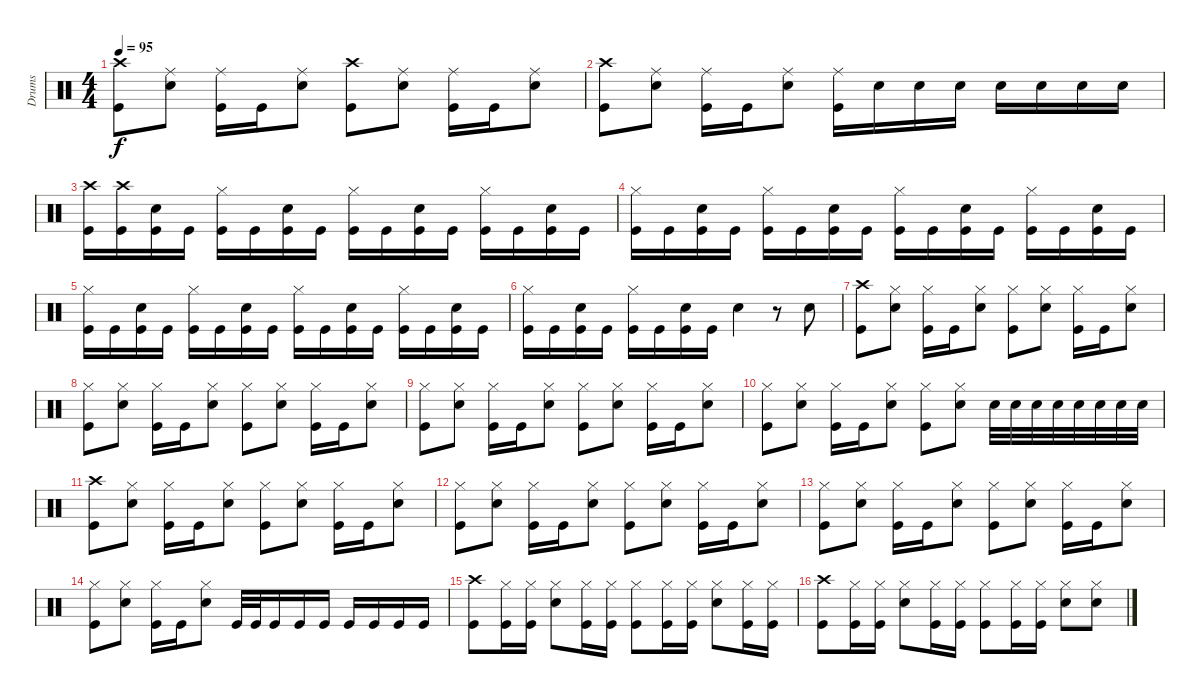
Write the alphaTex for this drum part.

\track ("Drums" "Drums") {instrument percussion}
\staff {score}
\articulation defaults
\ts (4 4)
\tempo 95
\clef neutral
\ks c
("Crash high (hit)" "Kick (hit)").8{dy f} ("Ride (middle)" "Snare (hit) 2").8 ("Ride (middle)" "Kick (hit)").16 "Kick (hit)".16 ("Ride (middle)" "Snare (hit) 2").8 ("Crash high (hit)" "Kick (hit)").8 ("Ride (middle)" "Snare (hit) 2").8 ("Ride (middle)" "Kick (hit)").16 "Kick (hit)".16 ("Ride (middle)" "Snare (hit) 2").8 |
("Crash high (hit)" "Kick (hit)").8 ("Ride (middle)" "Snare (hit) 2").8 ("Ride (middle)" "Kick (hit)").16 "Kick (hit)".16 ("Ride (middle)" "Snare (hit) 2").8 ("Ride (middle)" "Kick (hit)").16 "Snare (hit) 2".16 "Snare (hit) 2".16 "Snare (hit) 2".16 "Snare (hit) 2".16 "Snare (hit) 2".16 "Snare (hit) 2".16 "Snare (hit) 2".16 |
("Crash high (hit)" "Kick (hit)").16 ("Crash high (hit)" "Kick (hit)").16 ("Snare (hit) 2" "Kick (hit)").16 "Kick (hit)".16 ("Hi-Hat (closed)" "Kick (hit)").16 "Kick (hit)".16 ("Snare (hit) 2" "Kick (hit)").16 "Kick (hit)".16 ("Hi-Hat (closed)" "Kick (hit)").16 "Kick (hit)".16 ("Snare (hit) 2" "Kick (hit)").16 "Kick (hit)".16 ("Hi-Hat (closed)" "Kick (hit)").16 "Kick (hit)".16 ("Snare (hit) 2" "Kick (hit)").16 "Kick (hit)".16 |
("Hi-Hat (closed)" "Kick (hit)").16 "Kick (hit)".16 ("Snare (hit) 2" "Kick (hit)").16 "Kick (hit)".16 ("Hi-Hat (closed)" "Kick (hit)").16 "Kick (hit)".16 ("Snare (hit) 2" "Kick (hit)").16 "Kick (hit)".16 ("Hi-Hat (closed)" "Kick (hit)").16 "Kick (hit)".16 ("Snare (hit) 2" "Kick (hit)").16 "Kick (hit)".16 ("Hi-Hat (closed)" "Kick (hit)").16 "Kick (hit)".16 ("Snare (hit) 2" "Kick (hit)").16 "Kick (hit)".16 |
("Hi-Hat (closed)" "Kick (hit)").16 "Kick (hit)".16 ("Snare (hit) 2" "Kick (hit)").16 "Kick (hit)".16 ("Hi-Hat (closed)" "Kick (hit)").16 "Kick (hit)".16 ("Snare (hit) 2" "Kick (hit)").16 "Kick (hit)".16 ("Hi-Hat (closed)" "Kick (hit)").16 "Kick (hit)".16 ("Snare (hit) 2" "Kick (hit)").16 "Kick (hit)".16 ("Hi-Hat (closed)" "Kick (hit)").16 "Kick (hit)".16 ("Snare (hit) 2" "Kick (hit)").16 "Kick (hit)".16 |
("Hi-Hat (closed)" "Kick (hit)").16 "Kick (hit)".16 ("Snare (hit) 2" "Kick (hit)").16 "Kick (hit)".16 ("Hi-Hat (closed)" "Kick (hit)").16 "Kick (hit)".16 ("Snare (hit) 2" "Kick (hit)").16 "Kick (hit)".16 "Snare (hit) 2".4 r.8 "Snare (hit) 2".8 |
("Crash high (hit)" "Kick (hit)").8 ("Hi-Hat (closed)" "Snare (hit) 2").8 ("Hi-Hat (closed)" "Kick (hit)").16 "Kick (hit)".16 ("Hi-Hat (closed)" "Snare (hit) 2").8 ("Hi-Hat (closed)" "Kick (hit)").8 ("Hi-Hat (closed)" "Snare (hit) 2").8 ("Hi-Hat (closed)" "Kick (hit)").16 "Kick (hit)".16 ("Hi-Hat (closed)" "Snare (hit) 2").8 |
("Hi-Hat (closed)" "Kick (hit)").8 ("Hi-Hat (closed)" "Snare (hit) 2").8 ("Hi-Hat (closed)" "Kick (hit)").16 "Kick (hit)".16 ("Hi-Hat (closed)" "Snare (hit) 2").8 ("Hi-Hat (closed)" "Kick (hit)").8 ("Hi-Hat (closed)" "Snare (hit) 2").8 ("Hi-Hat (closed)" "Kick (hit)").16 "Kick (hit)".16 ("Hi-Hat (closed)" "Snare (hit) 2").8 |
("Hi-Hat (closed)" "Kick (hit)").8 ("Hi-Hat (closed)" "Snare (hit) 2").8 ("Hi-Hat (closed)" "Kick (hit)").16 "Kick (hit)".16 ("Hi-Hat (closed)" "Snare (hit) 2").8 ("Hi-Hat (closed)" "Kick (hit)").8 ("Hi-Hat (closed)" "Snare (hit) 2").8 ("Hi-Hat (closed)" "Kick (hit)").16 "Kick (hit)".16 ("Hi-Hat (closed)" "Snare (hit) 2").8 |
("Hi-Hat (closed)" "Kick (hit)").8 ("Hi-Hat (closed)" "Snare (hit) 2").8 ("Hi-Hat (closed)" "Kick (hit)").16 "Kick (hit)".16 ("Hi-Hat (closed)" "Snare (hit) 2").8 ("Hi-Hat (closed)" "Kick (hit)").8 ("Hi-Hat (closed)" "Snare (hit) 2").8 "Snare (hit) 2".32 "Snare (hit) 2".32 "Snare (hit) 2".32 "Snare (hit) 2".32 "Snare (hit) 2".32 "Snare (hit) 2".32 "Snare (hit) 2".32 "Snare (hit) 2".32 |
("Crash high (hit)" "Kick (hit)").8 ("Hi-Hat (closed)" "Snare (hit) 2").8 ("Hi-Hat (closed)" "Kick (hit)").16 "Kick (hit)".16 ("Hi-Hat (closed)" "Snare (hit) 2").8 ("Hi-Hat (closed)" "Kick (hit)").8 ("Hi-Hat (closed)" "Snare (hit) 2").8 ("Hi-Hat (closed)" "Kick (hit)").16 "Kick (hit)".16 ("Hi-Hat (closed)" "Snare (hit) 2").8 |
("Hi-Hat (closed)" "Kick (hit)").8 ("Hi-Hat (closed)" "Snare (hit) 2").8 ("Hi-Hat (closed)" "Kick (hit)").16 "Kick (hit)".16 ("Hi-Hat (closed)" "Snare (hit) 2").8 ("Hi-Hat (closed)" "Kick (hit)").8 ("Hi-Hat (closed)" "Snare (hit) 2").8 ("Hi-Hat (closed)" "Kick (hit)").16 "Kick (hit)".16 ("Hi-Hat (closed)" "Snare (hit) 2").8 |
("Hi-Hat (closed)" "Kick (hit)").8 ("Hi-Hat (closed)" "Snare (hit) 2").8 ("Hi-Hat (closed)" "Kick (hit)").16 "Kick (hit)".16 ("Hi-Hat (closed)" "Snare (hit) 2").8 ("Hi-Hat (closed)" "Kick (hit)").8 ("Hi-Hat (closed)" "Snare (hit) 2").8 ("Hi-Hat (closed)" "Kick (hit)").16 "Kick (hit)".16 ("Hi-Hat (closed)" "Snare (hit) 2").8 |
("Hi-Hat (closed)" "Kick (hit)").8 ("Hi-Hat (closed)" "Snare (hit) 2").8 ("Hi-Hat (closed)" "Kick (hit)").16 "Kick (hit)".16 ("Hi-Hat (closed)" "Snare (hit) 2").8 "Kick (hit)".32 "Kick (hit)".32 "Kick (hit)".16 "Kick (hit)".16 "Kick (hit)".16 "Kick (hit)".16 "Kick (hit)".16 "Kick (hit)".16 "Kick (hit)".16 |
("Crash high (hit)" "Kick (hit)").8 ("Hi-Hat (closed)" "Kick (hit)").16 ("Hi-Hat (closed)" "Kick (hit)").16 ("Hi-Hat (closed)" "Snare (hit) 2").8 ("Hi-Hat (closed)" "Kick (hit)").16 ("Hi-Hat (closed)" "Kick (hit)").16 ("Hi-Hat (closed)" "Kick (hit)").8 ("Hi-Hat (closed)" "Kick (hit)").16 ("Hi-Hat (closed)" "Kick (hit)").16 ("Hi-Hat (closed)" "Snare (hit) 2").8 ("Hi-Hat (closed)" "Kick (hit)").16 ("Hi-Hat (closed)" "Kick (hit)").16 |
("Crash high (hit)" "Kick (hit)").8 ("Hi-Hat (closed)" "Kick (hit)").16 ("Hi-Hat (closed)" "Kick (hit)").16 ("Hi-Hat (closed)" "Snare (hit) 2").8 ("Hi-Hat (closed)" "Kick (hit)").16 ("Hi-Hat (closed)" "Kick (hit)").16 ("Hi-Hat (closed)" "Kick (hit)").8 ("Hi-Hat (closed)" "Kick (hit)").16 ("Hi-Hat (closed)" "Kick (hit)").16 ("Hi-Hat (closed)" "Snare (hit) 2").8 ("Hi-Hat (closed)" "Snare (hit) 2").8
